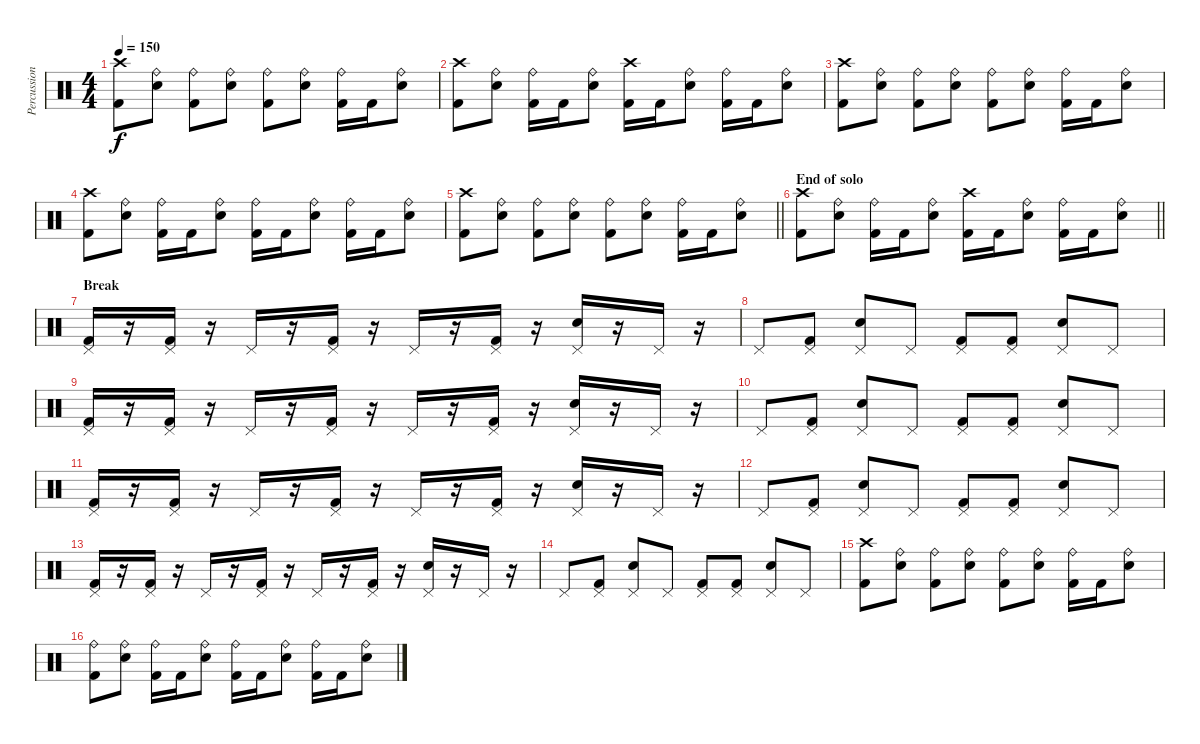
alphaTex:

\track ("Percussion" "Percussion") {instrument percussion}
\staff {score}
\articulation defaults
\ts (4 4)
\tempo 150
\clef neutral
\ks c
("Crash high (hit)" "Kick (hit) 2").8{dy f} ("Ride (bell)" "Electric Snare (hit)").8 ("Ride (bell)" "Kick (hit) 2").8 ("Ride (bell)" "Electric Snare (hit)").8 ("Ride (bell)" "Kick (hit) 2").8 ("Ride (bell)" "Electric Snare (hit)").8 ("Ride (bell)" "Kick (hit) 2").16 "Kick (hit) 2".16 ("Ride (bell)" "Electric Snare (hit)").8 |
("Crash high (hit)" "Kick (hit) 2").8 ("Ride (bell)" "Electric Snare (hit)").8 ("Ride (bell)" "Kick (hit) 2").16 "Kick (hit) 2".16 ("Ride (bell)" "Electric Snare (hit)").8 ("Crash high (hit)" "Kick (hit) 2").16 "Kick (hit) 2".16 ("Ride (bell)" "Electric Snare (hit)").8 ("Ride (bell)" "Kick (hit) 2").16 "Kick (hit) 2".16 ("Ride (bell)" "Electric Snare (hit)").8 |
("Crash high (hit)" "Kick (hit) 2").8 ("Ride (bell)" "Electric Snare (hit)").8 ("Ride (bell)" "Kick (hit) 2").8 ("Ride (bell)" "Electric Snare (hit)").8 ("Ride (bell)" "Kick (hit) 2").8 ("Ride (bell)" "Electric Snare (hit)").8 ("Ride (bell)" "Kick (hit) 2").16 "Kick (hit) 2".16 ("Ride (bell)" "Electric Snare (hit)").8 |
("Crash high (hit)" "Kick (hit) 2").8 ("Ride (bell)" "Electric Snare (hit)").8 ("Ride (bell)" "Kick (hit) 2").16 "Kick (hit) 2".16 ("Ride (bell)" "Electric Snare (hit)").8 ("Ride (bell)" "Kick (hit) 2").16 "Kick (hit) 2".16 ("Ride (bell)" "Electric Snare (hit)").8 ("Ride (bell)" "Kick (hit) 2").16 "Kick (hit) 2".16 ("Ride (bell)" "Electric Snare (hit)").8 |
\barLineRight lightlight
("Crash high (hit)" "Kick (hit) 2").8 ("Ride (bell)" "Electric Snare (hit)").8 ("Ride (bell)" "Kick (hit) 2").8 ("Ride (bell)" "Electric Snare (hit)").8 ("Ride (bell)" "Kick (hit) 2").8 ("Ride (bell)" "Electric Snare (hit)").8 ("Ride (bell)" "Kick (hit) 2").16 "Kick (hit) 2".16 ("Ride (bell)" "Electric Snare (hit)").8 |
\section ("" "End of solo")
\barLineRight lightlight
("Crash high (hit)" "Kick (hit) 2").8 ("Ride (bell)" "Electric Snare (hit)").8 ("Ride (bell)" "Kick (hit) 2").16 "Kick (hit) 2".16 ("Ride (bell)" "Electric Snare (hit)").8 ("Crash high (hit)" "Kick (hit) 2").16 "Kick (hit) 2".16 ("Ride (bell)" "Electric Snare (hit)").8 ("Ride (bell)" "Kick (hit) 2").16 "Kick (hit) 2".16 ("Ride (bell)" "Electric Snare (hit)").8 |
\section ("" "Break")
("Pedal Hi-Hat (hit)" "Kick (hit) 2").16 r.16 ("Pedal Hi-Hat (hit)" "Kick (hit) 2").16 r.16 "Pedal Hi-Hat (hit)".16 r.16 ("Pedal Hi-Hat (hit)" "Kick (hit) 2").16 r.16 "Pedal Hi-Hat (hit)".16 r.16 ("Pedal Hi-Hat (hit)" "Kick (hit) 2").16 r.16 ("Pedal Hi-Hat (hit)" "Electric Snare (hit)").16 r.16 "Pedal Hi-Hat (hit)".16 r.16 |
"Pedal Hi-Hat (hit)".8 ("Pedal Hi-Hat (hit)" "Kick (hit) 2").8 ("Pedal Hi-Hat (hit)" "Electric Snare (hit)").8 "Pedal Hi-Hat (hit)".8 ("Pedal Hi-Hat (hit)" "Kick (hit) 2").8 ("Pedal Hi-Hat (hit)" "Kick (hit) 2").8 ("Pedal Hi-Hat (hit)" "Electric Snare (hit)").8 "Pedal Hi-Hat (hit)".8 |
("Pedal Hi-Hat (hit)" "Kick (hit) 2").16 r.16 ("Pedal Hi-Hat (hit)" "Kick (hit) 2").16 r.16 "Pedal Hi-Hat (hit)".16 r.16 ("Pedal Hi-Hat (hit)" "Kick (hit) 2").16 r.16 "Pedal Hi-Hat (hit)".16 r.16 ("Pedal Hi-Hat (hit)" "Kick (hit) 2").16 r.16 ("Pedal Hi-Hat (hit)" "Electric Snare (hit)").16 r.16 "Pedal Hi-Hat (hit)".16 r.16 |
"Pedal Hi-Hat (hit)".8 ("Pedal Hi-Hat (hit)" "Kick (hit) 2").8 ("Pedal Hi-Hat (hit)" "Electric Snare (hit)").8 "Pedal Hi-Hat (hit)".8 ("Pedal Hi-Hat (hit)" "Kick (hit) 2").8 ("Pedal Hi-Hat (hit)" "Kick (hit) 2").8 ("Pedal Hi-Hat (hit)" "Electric Snare (hit)").8 "Pedal Hi-Hat (hit)".8 |
("Pedal Hi-Hat (hit)" "Kick (hit) 2").16 r.16 ("Pedal Hi-Hat (hit)" "Kick (hit) 2").16 r.16 "Pedal Hi-Hat (hit)".16 r.16 ("Pedal Hi-Hat (hit)" "Kick (hit) 2").16 r.16 "Pedal Hi-Hat (hit)".16 r.16 ("Pedal Hi-Hat (hit)" "Kick (hit) 2").16 r.16 ("Pedal Hi-Hat (hit)" "Electric Snare (hit)").16 r.16 "Pedal Hi-Hat (hit)".16 r.16 |
"Pedal Hi-Hat (hit)".8 ("Pedal Hi-Hat (hit)" "Kick (hit) 2").8 ("Pedal Hi-Hat (hit)" "Electric Snare (hit)").8 "Pedal Hi-Hat (hit)".8 ("Pedal Hi-Hat (hit)" "Kick (hit) 2").8 ("Pedal Hi-Hat (hit)" "Kick (hit) 2").8 ("Pedal Hi-Hat (hit)" "Electric Snare (hit)").8 "Pedal Hi-Hat (hit)".8 |
("Pedal Hi-Hat (hit)" "Kick (hit) 2").16 r.16 ("Pedal Hi-Hat (hit)" "Kick (hit) 2").16 r.16 "Pedal Hi-Hat (hit)".16 r.16 ("Pedal Hi-Hat (hit)" "Kick (hit) 2").16 r.16 "Pedal Hi-Hat (hit)".16 r.16 ("Pedal Hi-Hat (hit)" "Kick (hit) 2").16 r.16 ("Pedal Hi-Hat (hit)" "Electric Snare (hit)").16 r.16 "Pedal Hi-Hat (hit)".16 r.16 |
"Pedal Hi-Hat (hit)".8 ("Pedal Hi-Hat (hit)" "Kick (hit) 2").8 ("Pedal Hi-Hat (hit)" "Electric Snare (hit)").8 "Pedal Hi-Hat (hit)".8 ("Pedal Hi-Hat (hit)" "Kick (hit) 2").8 ("Pedal Hi-Hat (hit)" "Kick (hit) 2").8 ("Pedal Hi-Hat (hit)" "Electric Snare (hit)").8 "Pedal Hi-Hat (hit)".8 |
("Crash high (hit)" "Kick (hit) 2").8 ("Ride (bell)" "Electric Snare (hit)").8 ("Ride (bell)" "Kick (hit) 2").8 ("Ride (bell)" "Electric Snare (hit)").8 ("Ride (bell)" "Kick (hit) 2").8 ("Ride (bell)" "Electric Snare (hit)").8 ("Ride (bell)" "Kick (hit) 2").16 "Kick (hit) 2".16 ("Ride (bell)" "Electric Snare (hit)").8 |
("Ride (bell)" "Kick (hit) 2").8 ("Ride (bell)" "Electric Snare (hit)").8 ("Ride (bell)" "Kick (hit) 2").16 "Kick (hit) 2".16 ("Ride (bell)" "Electric Snare (hit)").8 ("Ride (bell)" "Kick (hit) 2").16 "Kick (hit) 2".16 ("Ride (bell)" "Electric Snare (hit)").8 ("Ride (bell)" "Kick (hit) 2").16 "Kick (hit) 2".16 ("Ride (bell)" "Electric Snare (hit)").8
